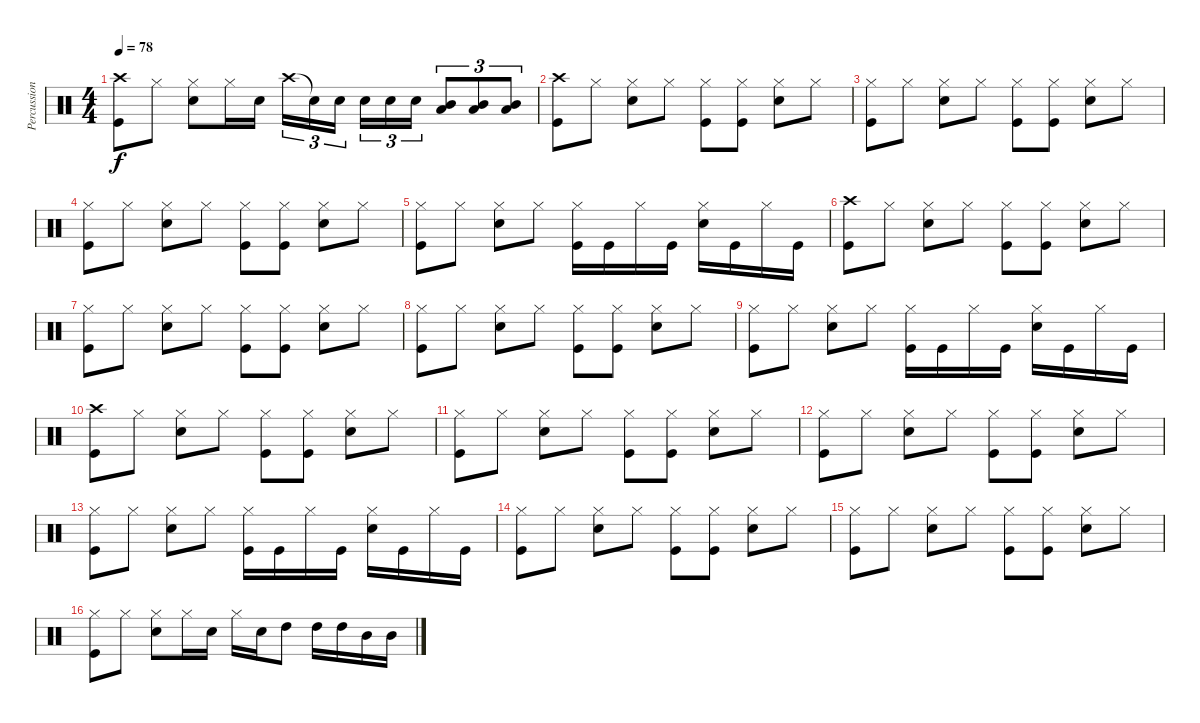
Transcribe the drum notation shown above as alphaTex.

\track ("Percussion" "Percussion") {instrument percussion}
\staff {score}
\articulation defaults
\ts (4 4)
\tempo 78
\clef neutral
\ks c
("Crash high (hit)" "Kick (hit)").8{dy f} "Hi-Hat (closed)".8 ("Hi-Hat (closed)" "Snare (hit) 2").8 "Hi-Hat (closed)".16 "Snare (hit) 2".16 "Crash high (hit)".16{tu (3 2)} "Snare (hit)"{t}.16{tu (3 2)} "Snare (hit) 2".16{tu (3 2)} "Snare (hit) 2".16{tu (3 2)} "Snare (hit) 2".16{tu (3 2)} "Snare (hit) 2".16{tu (3 2)} ("Mid Tom (hit)" "Low Tom (hit)").8{tu (3 2)} ("Mid Tom (hit)" "Low Tom (hit)").8{tu (3 2)} ("Mid Tom (hit)" "Low Tom (hit)").8{tu (3 2)} |
("Crash high (hit)" "Kick (hit)").8 "Hi-Hat (closed)".8 ("Hi-Hat (closed)" "Snare (hit) 2").8 "Hi-Hat (closed)".8 ("Hi-Hat (closed)" "Kick (hit)").8 ("Hi-Hat (closed)" "Kick (hit)").8 ("Hi-Hat (closed)" "Snare (hit) 2").8 "Hi-Hat (closed)".8 |
("Hi-Hat (closed)" "Kick (hit)").8 "Hi-Hat (closed)".8 ("Hi-Hat (closed)" "Snare (hit) 2").8 "Hi-Hat (closed)".8 ("Hi-Hat (closed)" "Kick (hit)").8 ("Hi-Hat (closed)" "Kick (hit)").8 ("Hi-Hat (closed)" "Snare (hit) 2").8 "Hi-Hat (closed)".8 |
("Hi-Hat (closed)" "Kick (hit)").8 "Hi-Hat (closed)".8 ("Hi-Hat (closed)" "Snare (hit) 2").8 "Hi-Hat (closed)".8 ("Hi-Hat (closed)" "Kick (hit)").8 ("Hi-Hat (closed)" "Kick (hit)").8 ("Hi-Hat (closed)" "Snare (hit) 2").8 "Hi-Hat (closed)".8 |
("Hi-Hat (closed)" "Kick (hit)").8 "Hi-Hat (closed)".8 ("Hi-Hat (closed)" "Snare (hit) 2").8 "Hi-Hat (closed)".8 ("Hi-Hat (closed)" "Kick (hit)").16 "Kick (hit)".16 "Hi-Hat (closed)".16 "Kick (hit)".16 ("Hi-Hat (closed)" "Snare (hit) 2").16 "Kick (hit)".16 "Hi-Hat (closed)".16 "Kick (hit)".16 |
("Crash high (hit)" "Kick (hit)").8 "Hi-Hat (closed)".8 ("Hi-Hat (closed)" "Snare (hit) 2").8 "Hi-Hat (closed)".8 ("Hi-Hat (closed)" "Kick (hit)").8 ("Hi-Hat (closed)" "Kick (hit)").8 ("Hi-Hat (closed)" "Snare (hit) 2").8 "Hi-Hat (closed)".8 |
("Hi-Hat (closed)" "Kick (hit)").8 "Hi-Hat (closed)".8 ("Hi-Hat (closed)" "Snare (hit) 2").8 "Hi-Hat (closed)".8 ("Hi-Hat (closed)" "Kick (hit)").8 ("Hi-Hat (closed)" "Kick (hit)").8 ("Hi-Hat (closed)" "Snare (hit) 2").8 "Hi-Hat (closed)".8 |
("Hi-Hat (closed)" "Kick (hit)").8 "Hi-Hat (closed)".8 ("Hi-Hat (closed)" "Snare (hit) 2").8 "Hi-Hat (closed)".8 ("Hi-Hat (closed)" "Kick (hit)").8 ("Hi-Hat (closed)" "Kick (hit)").8 ("Hi-Hat (closed)" "Snare (hit) 2").8 "Hi-Hat (closed)".8 |
("Hi-Hat (closed)" "Kick (hit)").8 "Hi-Hat (closed)".8 ("Hi-Hat (closed)" "Snare (hit) 2").8 "Hi-Hat (closed)".8 ("Hi-Hat (closed)" "Kick (hit)").16 "Kick (hit)".16 "Hi-Hat (closed)".16 "Kick (hit)".16 ("Hi-Hat (closed)" "Snare (hit) 2").16 "Kick (hit)".16 "Hi-Hat (closed)".16 "Kick (hit)".16 |
("Crash high (hit)" "Kick (hit)").8 "Hi-Hat (closed)".8 ("Hi-Hat (closed)" "Snare (hit) 2").8 "Hi-Hat (closed)".8 ("Hi-Hat (closed)" "Kick (hit)").8 ("Hi-Hat (closed)" "Kick (hit)").8 ("Hi-Hat (closed)" "Snare (hit) 2").8 "Hi-Hat (closed)".8 |
("Hi-Hat (closed)" "Kick (hit)").8 "Hi-Hat (closed)".8 ("Hi-Hat (closed)" "Snare (hit) 2").8 "Hi-Hat (closed)".8 ("Hi-Hat (closed)" "Kick (hit)").8 ("Hi-Hat (closed)" "Kick (hit)").8 ("Hi-Hat (closed)" "Snare (hit) 2").8 "Hi-Hat (closed)".8 |
("Hi-Hat (closed)" "Kick (hit)").8 "Hi-Hat (closed)".8 ("Hi-Hat (closed)" "Snare (hit) 2").8 "Hi-Hat (closed)".8 ("Hi-Hat (closed)" "Kick (hit)").8 ("Hi-Hat (closed)" "Kick (hit)").8 ("Hi-Hat (closed)" "Snare (hit) 2").8 "Hi-Hat (closed)".8 |
("Hi-Hat (closed)" "Kick (hit)").8 "Hi-Hat (closed)".8 ("Hi-Hat (closed)" "Snare (hit) 2").8 "Hi-Hat (closed)".8 ("Hi-Hat (closed)" "Kick (hit)").16 "Kick (hit)".16 "Hi-Hat (closed)".16 "Kick (hit)".16 ("Hi-Hat (closed)" "Snare (hit) 2").16 "Kick (hit)".16 "Hi-Hat (closed)".16 "Kick (hit)".16 |
("Hi-Hat (closed)" "Kick (hit)").8 "Hi-Hat (closed)".8 ("Hi-Hat (closed)" "Snare (hit) 2").8 "Hi-Hat (closed)".8 ("Hi-Hat (closed)" "Kick (hit)").8 ("Hi-Hat (closed)" "Kick (hit)").8 ("Hi-Hat (closed)" "Snare (hit) 2").8 "Hi-Hat (closed)".8 |
("Hi-Hat (closed)" "Kick (hit)").8 "Hi-Hat (closed)".8 ("Hi-Hat (closed)" "Snare (hit) 2").8 "Hi-Hat (closed)".8 ("Hi-Hat (closed)" "Kick (hit)").8 ("Hi-Hat (closed)" "Kick (hit)").8 ("Hi-Hat (closed)" "Snare (hit) 2").8 "Hi-Hat (closed)".8 |
("Hi-Hat (closed)" "Kick (hit)").8 "Hi-Hat (closed)".8 ("Hi-Hat (closed)" "Snare (hit) 2").8 "Hi-Hat (closed)".16 "Snare (hit) 2".16 "Hi-Hat (closed)".16 "Snare (hit) 2".16 "High Tom (hit)".8 "High Tom (hit)".16 "High Tom (hit)".16 "Mid Tom (hit)".16 "Mid Tom (hit)".16
